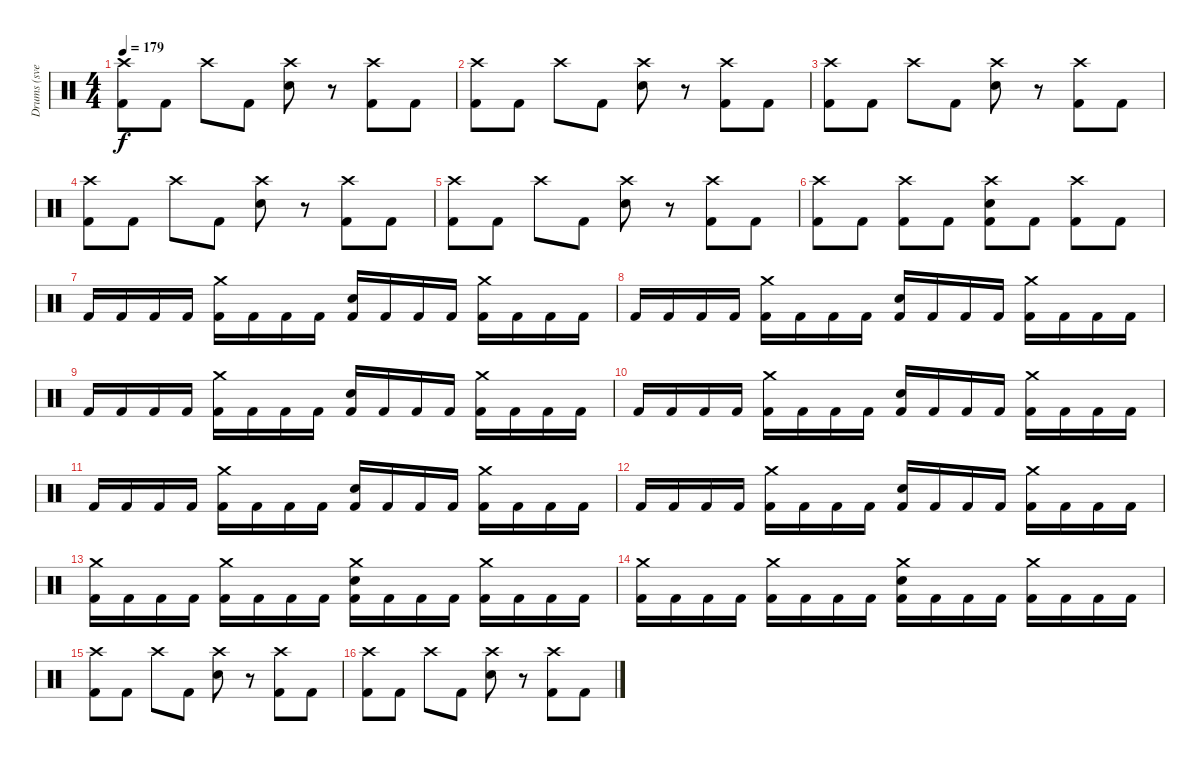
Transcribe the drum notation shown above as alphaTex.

\track ("Drums (svelle)" "Drums (sve") {instrument percussion}
\staff {score}
\articulation defaults
\ts (4 4)
\tempo 179
\clef neutral
\ks c
("Crash high (hit)" "Kick (hit) 2").8{dy f} "Kick (hit) 2".8 "Crash high (hit)".8 "Kick (hit) 2".8 ("Crash high (hit)" "Electric Snare (hit)").8 r.8 ("Crash high (hit)" "Kick (hit) 2").8 "Kick (hit) 2".8 |
("Crash high (hit)" "Kick (hit) 2").8 "Kick (hit) 2".8 "Crash high (hit)".8 "Kick (hit) 2".8 ("Crash high (hit)" "Electric Snare (hit)").8 r.8 ("Crash high (hit)" "Kick (hit) 2").8 "Kick (hit) 2".8 |
("Crash high (hit)" "Kick (hit) 2").8 "Kick (hit) 2".8 "Crash high (hit)".8 "Kick (hit) 2".8 ("Crash high (hit)" "Electric Snare (hit)").8 r.8 ("Crash high (hit)" "Kick (hit) 2").8 "Kick (hit) 2".8 |
("Crash high (hit)" "Kick (hit) 2").8 "Kick (hit) 2".8 "Crash high (hit)".8 "Kick (hit) 2".8 ("Crash high (hit)" "Electric Snare (hit)").8 r.8 ("Crash high (hit)" "Kick (hit) 2").8 "Kick (hit) 2".8 |
("Crash high (hit)" "Kick (hit) 2").8 "Kick (hit) 2".8 "Crash high (hit)".8 "Kick (hit) 2".8 ("Crash high (hit)" "Electric Snare (hit)").8 r.8 ("Crash high (hit)" "Kick (hit) 2").8 "Kick (hit) 2".8 |
("Crash high (hit)" "Kick (hit) 2").8 "Kick (hit) 2".8 ("Crash high (hit)" "Kick (hit) 2").8 "Kick (hit) 2".8 ("Crash high (hit)" "Electric Snare (hit)" "Kick (hit) 2").8 "Kick (hit) 2".8 ("Crash high (hit)" "Kick (hit) 2").8 "Kick (hit) 2".8 |
"Kick (hit) 2".16 "Kick (hit) 2".16 "Kick (hit) 2".16 "Kick (hit) 2".16 ("Crash medium (hit)" "Kick (hit) 2").16 "Kick (hit) 2".16 "Kick (hit) 2".16 "Kick (hit) 2".16 ("Electric Snare (hit)" "Kick (hit) 2").16 "Kick (hit) 2".16 "Kick (hit) 2".16 "Kick (hit) 2".16 ("Crash medium (hit)" "Kick (hit) 2").16 "Kick (hit) 2".16 "Kick (hit) 2".16 "Kick (hit) 2".16 |
"Kick (hit) 2".16 "Kick (hit) 2".16 "Kick (hit) 2".16 "Kick (hit) 2".16 ("Crash medium (hit)" "Kick (hit) 2").16 "Kick (hit) 2".16 "Kick (hit) 2".16 "Kick (hit) 2".16 ("Electric Snare (hit)" "Kick (hit) 2").16 "Kick (hit) 2".16 "Kick (hit) 2".16 "Kick (hit) 2".16 ("Crash medium (hit)" "Kick (hit) 2").16 "Kick (hit) 2".16 "Kick (hit) 2".16 "Kick (hit) 2".16 |
"Kick (hit) 2".16 "Kick (hit) 2".16 "Kick (hit) 2".16 "Kick (hit) 2".16 ("Crash medium (hit)" "Kick (hit) 2").16 "Kick (hit) 2".16 "Kick (hit) 2".16 "Kick (hit) 2".16 ("Electric Snare (hit)" "Kick (hit) 2").16 "Kick (hit) 2".16 "Kick (hit) 2".16 "Kick (hit) 2".16 ("Crash medium (hit)" "Kick (hit) 2").16 "Kick (hit) 2".16 "Kick (hit) 2".16 "Kick (hit) 2".16 |
"Kick (hit) 2".16 "Kick (hit) 2".16 "Kick (hit) 2".16 "Kick (hit) 2".16 ("Crash medium (hit)" "Kick (hit) 2").16 "Kick (hit) 2".16 "Kick (hit) 2".16 "Kick (hit) 2".16 ("Electric Snare (hit)" "Kick (hit) 2").16 "Kick (hit) 2".16 "Kick (hit) 2".16 "Kick (hit) 2".16 ("Crash medium (hit)" "Kick (hit) 2").16 "Kick (hit) 2".16 "Kick (hit) 2".16 "Kick (hit) 2".16 |
"Kick (hit) 2".16 "Kick (hit) 2".16 "Kick (hit) 2".16 "Kick (hit) 2".16 ("Crash medium (hit)" "Kick (hit) 2").16 "Kick (hit) 2".16 "Kick (hit) 2".16 "Kick (hit) 2".16 ("Electric Snare (hit)" "Kick (hit) 2").16 "Kick (hit) 2".16 "Kick (hit) 2".16 "Kick (hit) 2".16 ("Crash medium (hit)" "Kick (hit) 2").16 "Kick (hit) 2".16 "Kick (hit) 2".16 "Kick (hit) 2".16 |
"Kick (hit) 2".16 "Kick (hit) 2".16 "Kick (hit) 2".16 "Kick (hit) 2".16 ("Crash medium (hit)" "Kick (hit) 2").16 "Kick (hit) 2".16 "Kick (hit) 2".16 "Kick (hit) 2".16 ("Electric Snare (hit)" "Kick (hit) 2").16 "Kick (hit) 2".16 "Kick (hit) 2".16 "Kick (hit) 2".16 ("Crash medium (hit)" "Kick (hit) 2").16 "Kick (hit) 2".16 "Kick (hit) 2".16 "Kick (hit) 2".16 |
("Crash medium (hit)" "Kick (hit) 2").16 "Kick (hit) 2".16 "Kick (hit) 2".16 "Kick (hit) 2".16 ("Crash medium (hit)" "Kick (hit) 2").16 "Kick (hit) 2".16 "Kick (hit) 2".16 "Kick (hit) 2".16 ("Crash medium (hit)" "Electric Snare (hit)" "Kick (hit) 2").16 "Kick (hit) 2".16 "Kick (hit) 2".16 "Kick (hit) 2".16 ("Crash medium (hit)" "Kick (hit) 2").16 "Kick (hit) 2".16 "Kick (hit) 2".16 "Kick (hit) 2".16 |
("Crash medium (hit)" "Kick (hit) 2").16 "Kick (hit) 2".16 "Kick (hit) 2".16 "Kick (hit) 2".16 ("Crash medium (hit)" "Kick (hit) 2").16 "Kick (hit) 2".16 "Kick (hit) 2".16 "Kick (hit) 2".16 ("Crash medium (hit)" "Electric Snare (hit)" "Kick (hit) 2").16 "Kick (hit) 2".16 "Kick (hit) 2".16 "Kick (hit) 2".16 ("Crash medium (hit)" "Kick (hit) 2").16 "Kick (hit) 2".16 "Kick (hit) 2".16 "Kick (hit) 2".16 |
("Crash high (hit)" "Kick (hit) 2").8 "Kick (hit) 2".8 "Crash high (hit)".8 "Kick (hit) 2".8 ("Crash high (hit)" "Electric Snare (hit)").8 r.8 ("Crash high (hit)" "Kick (hit) 2").8 "Kick (hit) 2".8 |
("Crash high (hit)" "Kick (hit) 2").8 "Kick (hit) 2".8 "Crash high (hit)".8 "Kick (hit) 2".8 ("Crash high (hit)" "Electric Snare (hit)").8 r.8 ("Crash high (hit)" "Kick (hit) 2").8 "Kick (hit) 2".8
